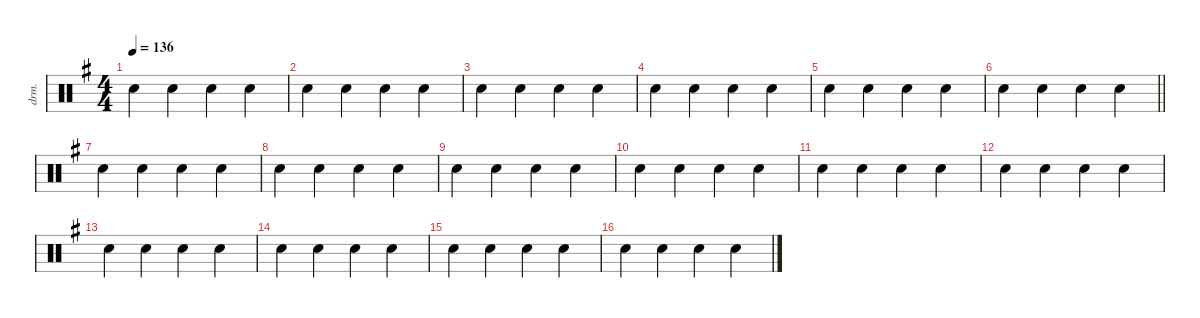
\defaultSystemsLayout 4
\hideDynamics
\bracketExtendMode nobrackets
\otherSystemsTrackNameOrientation horizontal
\track ("Percussions" "drm.") {instrument percussion}
\staff {score}
\articulation defaults
\ts (4 4)
\tempo 136
\clef neutral
\ks g "Hand Clap (hit)"{acc forcenatural}.4{dy f beam Down} "Hand Clap (hit)"{acc forcenatural}.4{beam Down} "Hand Clap (hit)"{acc forcenatural}.4{beam Down} "Hand Clap (hit)"{acc forcenatural}.4{beam Down}
|
"Hand Clap (hit)"{acc forcenatural}.4{beam Down} "Hand Clap (hit)"{acc forcenatural}.4{beam Down} "Hand Clap (hit)"{acc forcenatural}.4{beam Down} "Hand Clap (hit)"{acc forcenatural}.4{beam Down} |
"Hand Clap (hit)"{acc forcenatural}.4{beam Down} "Hand Clap (hit)"{acc forcenatural}.4{beam Down} "Hand Clap (hit)"{acc forcenatural}.4{beam Down} "Hand Clap (hit)"{acc forcenatural}.4{beam Down} |
"Hand Clap (hit)"{acc forcenatural}.4{beam Down} "Hand Clap (hit)"{acc forcenatural}.4{beam Down} "Hand Clap (hit)"{acc forcenatural}.4{beam Down} "Hand Clap (hit)"{acc forcenatural}.4{beam Down} |
"Hand Clap (hit)"{acc forcenatural}.4{beam Down} "Hand Clap (hit)"{acc forcenatural}.4{beam Down} "Hand Clap (hit)"{acc forcenatural}.4{beam Down} "Hand Clap (hit)"{acc forcenatural}.4{beam Down} |
\barLineRight lightlight "Hand Clap (hit)"{acc forcenatural}.4{beam Down} "Hand Clap (hit)"{acc forcenatural}.4{beam Down} "Hand Clap (hit)"{acc forcenatural}.4{beam Down} "Hand Clap (hit)"{acc forcenatural}.4{beam Down}
|
"Hand Clap (hit)"{acc forcenatural}.4{beam Down} "Hand Clap (hit)"{acc forcenatural}.4{beam Down} "Hand Clap (hit)"{acc forcenatural}.4{beam Down} "Hand Clap (hit)"{acc forcenatural}.4{beam Down} |
"Hand Clap (hit)"{acc forcenatural}.4{beam Down} "Hand Clap (hit)"{acc forcenatural}.4{beam Down} "Hand Clap (hit)"{acc forcenatural}.4{beam Down} "Hand Clap (hit)"{acc forcenatural}.4{beam Down} |
"Hand Clap (hit)"{acc forcenatural}.4{beam Down} "Hand Clap (hit)"{acc forcenatural}.4{beam Down} "Hand Clap (hit)"{acc forcenatural}.4{beam Down} "Hand Clap (hit)"{acc forcenatural}.4{beam Down} |
"Hand Clap (hit)"{acc forcenatural}.4{beam Down} "Hand Clap (hit)"{acc forcenatural}.4{beam Down} "Hand Clap (hit)"{acc forcenatural}.4{beam Down} "Hand Clap (hit)"{acc forcenatural}.4{beam Down} |
"Hand Clap (hit)"{acc forcenatural}.4{beam Down} "Hand Clap (hit)"{acc forcenatural}.4{beam Down} "Hand Clap (hit)"{acc forcenatural}.4{beam Down} "Hand Clap (hit)"{acc forcenatural}.4{beam Down} |
"Hand Clap (hit)"{acc forcenatural}.4{beam Down} "Hand Clap (hit)"{acc forcenatural}.4{beam Down} "Hand Clap (hit)"{acc forcenatural}.4{beam Down} "Hand Clap (hit)"{acc forcenatural}.4{beam Down} |
"Hand Clap (hit)"{acc forcenatural}.4{beam Down} "Hand Clap (hit)"{acc forcenatural}.4{beam Down} "Hand Clap (hit)"{acc forcenatural}.4{beam Down} "Hand Clap (hit)"{acc forcenatural}.4{beam Down} |
"Hand Clap (hit)"{acc forcenatural}.4{beam Down} "Hand Clap (hit)"{acc forcenatural}.4{beam Down} "Hand Clap (hit)"{acc forcenatural}.4{beam Down} "Hand Clap (hit)"{acc forcenatural}.4{beam Down} |
"Hand Clap (hit)"{acc forcenatural}.4{beam Down} "Hand Clap (hit)"{acc forcenatural}.4{beam Down} "Hand Clap (hit)"{acc forcenatural}.4{beam Down} "Hand Clap (hit)"{acc forcenatural}.4{beam Down} |
"Hand Clap (hit)"{acc forcenatural}.4{beam Down} "Hand Clap (hit)"{acc forcenatural}.4{beam Down} "Hand Clap (hit)"{acc forcenatural}.4{beam Down} "Hand Clap (hit)"{acc forcenatural}.4{beam Down}
